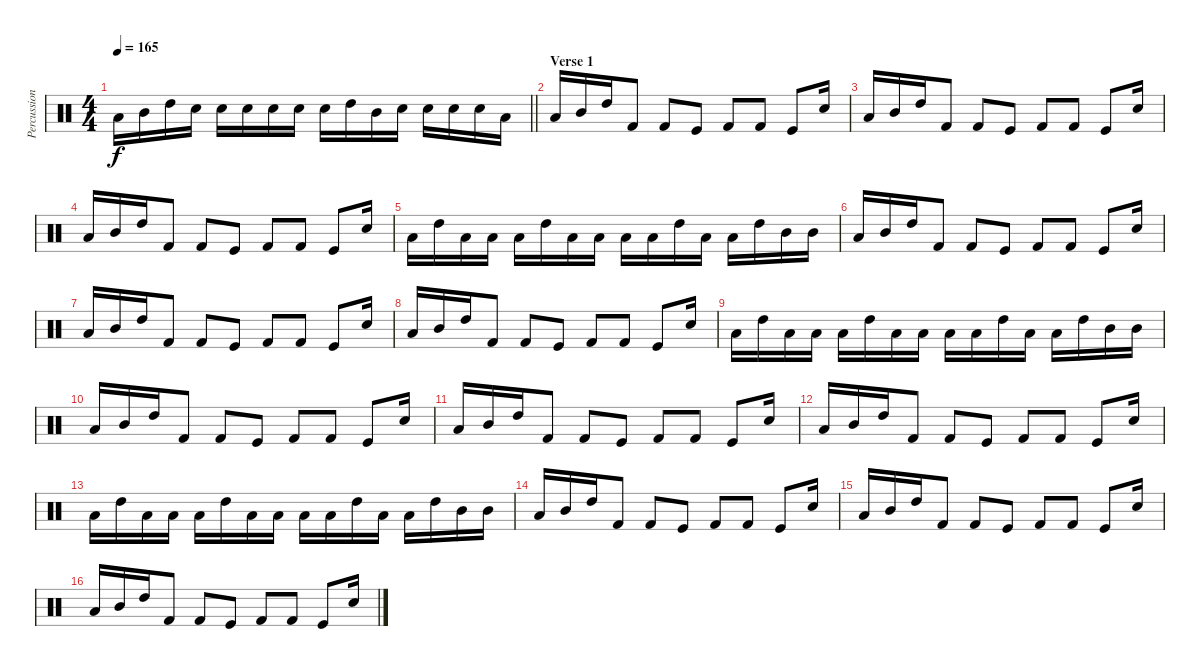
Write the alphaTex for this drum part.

\track ("Percussion" "Percussion") {instrument percussion}
\staff {score}
\articulation defaults
\ts (4 4)
\section ("" "")
\tempo 165
\clef neutral
\barLineRight lightlight
\ks c "Low Tom (hit)".16{dy f} "Mid Tom (hit)".16 "High Tom (hit)".16 "Electric Snare (hit)".16 "Snare (hit) 2".16 "Snare (hit) 2".16 "Electric Snare (hit)".16 "Snare (hit) 2".16 "Electric Snare (hit)".16 "High Tom (hit)".16 "Mid Tom (hit)".16 "Snare (hit) 2".16 "Electric Snare (hit)".16 "Electric Snare (hit)".16 "Electric Snare (hit)".16 "Low Tom (hit)".16
|
\section ("" "Verse 1")
"Low Tom (hit)".16 "Mid Tom (hit)".16 "High Tom (hit)".16 "Kick (hit) 2".8 "Kick (hit) 2".8 "Kick (hit)".8 "Kick (hit) 2".8 "Kick (hit) 2".8 "Kick (hit)".8 "Electric Snare (hit)".16 |
"Low Tom (hit)".16 "Mid Tom (hit)".16 "High Tom (hit)".16 "Kick (hit) 2".8 "Kick (hit) 2".8 "Kick (hit)".8 "Kick (hit) 2".8 "Kick (hit) 2".8 "Kick (hit)".8 "Electric Snare (hit)".16 |
"Low Tom (hit)".16 "Mid Tom (hit)".16 "High Tom (hit)".16 "Kick (hit) 2".8 "Kick (hit) 2".8 "Kick (hit)".8 "Kick (hit) 2".8 "Kick (hit) 2".8 "Kick (hit)".8 "Electric Snare (hit)".16 |
"Low Tom (hit)".16 "High Tom (hit)".16 "Low Tom (hit)".16 "Low Tom (hit)".16 "Low Tom (hit)".16 "High Tom (hit)".16 "Low Tom (hit)".16 "Low Tom (hit)".16 "Low Tom (hit)".16 "Low Tom (hit)".16 "High Tom (hit)".16 "Low Tom (hit)".16 "Low Tom (hit)".16 "High Tom (hit)".16 "Mid Tom (hit)".16 "Mid Tom (hit)".16 |
"Low Tom (hit)".16 "Mid Tom (hit)".16 "High Tom (hit)".16 "Kick (hit) 2".8 "Kick (hit) 2".8 "Kick (hit)".8 "Kick (hit) 2".8 "Kick (hit) 2".8 "Kick (hit)".8 "Electric Snare (hit)".16 |
"Low Tom (hit)".16 "Mid Tom (hit)".16 "High Tom (hit)".16 "Kick (hit) 2".8 "Kick (hit) 2".8 "Kick (hit)".8 "Kick (hit) 2".8 "Kick (hit) 2".8 "Kick (hit)".8 "Electric Snare (hit)".16 |
"Low Tom (hit)".16 "Mid Tom (hit)".16 "High Tom (hit)".16 "Kick (hit) 2".8 "Kick (hit) 2".8 "Kick (hit)".8 "Kick (hit) 2".8 "Kick (hit) 2".8 "Kick (hit)".8 "Electric Snare (hit)".16 |
"Low Tom (hit)".16 "High Tom (hit)".16 "Low Tom (hit)".16 "Low Tom (hit)".16 "Low Tom (hit)".16 "High Tom (hit)".16 "Low Tom (hit)".16 "Low Tom (hit)".16 "Low Tom (hit)".16 "Low Tom (hit)".16 "High Tom (hit)".16 "Low Tom (hit)".16 "Low Tom (hit)".16 "High Tom (hit)".16 "Mid Tom (hit)".16 "Mid Tom (hit)".16 |
"Low Tom (hit)".16 "Mid Tom (hit)".16 "High Tom (hit)".16 "Kick (hit) 2".8 "Kick (hit) 2".8 "Kick (hit)".8 "Kick (hit) 2".8 "Kick (hit) 2".8 "Kick (hit)".8 "Electric Snare (hit)".16 |
"Low Tom (hit)".16 "Mid Tom (hit)".16 "High Tom (hit)".16 "Kick (hit) 2".8 "Kick (hit) 2".8 "Kick (hit)".8 "Kick (hit) 2".8 "Kick (hit) 2".8 "Kick (hit)".8 "Electric Snare (hit)".16 |
"Low Tom (hit)".16 "Mid Tom (hit)".16 "High Tom (hit)".16 "Kick (hit) 2".8 "Kick (hit) 2".8 "Kick (hit)".8 "Kick (hit) 2".8 "Kick (hit) 2".8 "Kick (hit)".8 "Electric Snare (hit)".16 |
"Low Tom (hit)".16 "High Tom (hit)".16 "Low Tom (hit)".16 "Low Tom (hit)".16 "Low Tom (hit)".16 "High Tom (hit)".16 "Low Tom (hit)".16 "Low Tom (hit)".16 "Low Tom (hit)".16 "Low Tom (hit)".16 "High Tom (hit)".16 "Low Tom (hit)".16 "Low Tom (hit)".16 "High Tom (hit)".16 "Mid Tom (hit)".16 "Mid Tom (hit)".16 |
"Low Tom (hit)".16 "Mid Tom (hit)".16 "High Tom (hit)".16 "Kick (hit) 2".8 "Kick (hit) 2".8 "Kick (hit)".8 "Kick (hit) 2".8 "Kick (hit) 2".8 "Kick (hit)".8 "Electric Snare (hit)".16 |
"Low Tom (hit)".16 "Mid Tom (hit)".16 "High Tom (hit)".16 "Kick (hit) 2".8 "Kick (hit) 2".8 "Kick (hit)".8 "Kick (hit) 2".8 "Kick (hit) 2".8 "Kick (hit)".8 "Electric Snare (hit)".16 |
"Low Tom (hit)".16 "Mid Tom (hit)".16 "High Tom (hit)".16 "Kick (hit) 2".8 "Kick (hit) 2".8 "Kick (hit)".8 "Kick (hit) 2".8 "Kick (hit) 2".8 "Kick (hit)".8 "Electric Snare (hit)".16
